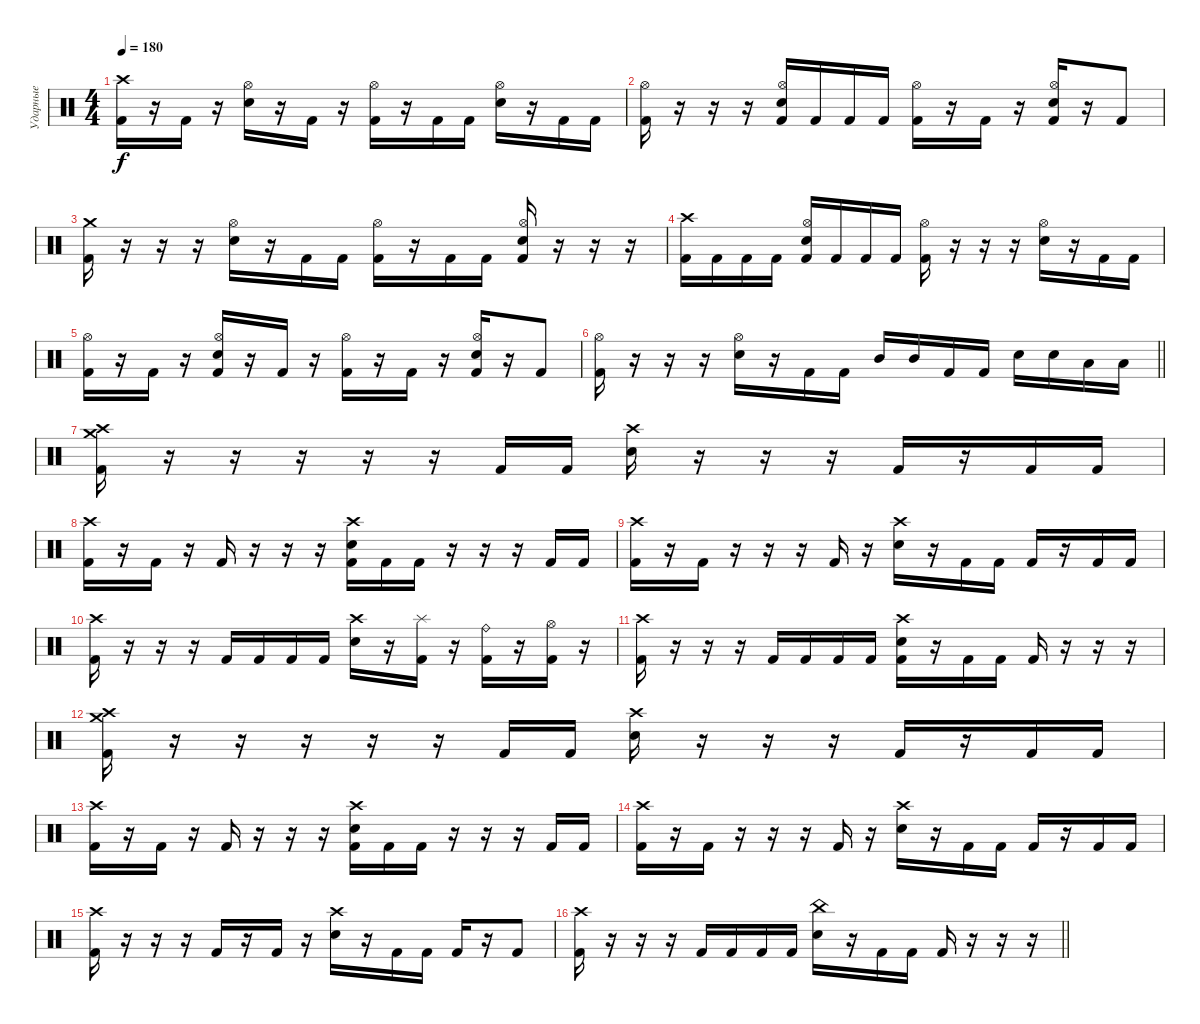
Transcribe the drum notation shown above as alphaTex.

\track ("Ударные" "Ударные") {instrument percussion}
\staff {score}
\articulation defaults
\ts (4 4)
\tempo 180
\clef neutral
\ks c
("Crash high (hit)" "Kick (hit) 2").16{dy f} r.16 "Kick (hit) 2".16 r.16 ("Hi-Hat (open)" "Electric Snare (hit)").16 r.16 "Kick (hit) 2".16 r.16 ("Hi-Hat (open)" "Kick (hit) 2").16 r.16 "Kick (hit) 2".16 "Kick (hit) 2".16 ("Hi-Hat (open)" "Electric Snare (hit)").16 r.16 "Kick (hit) 2".16 "Kick (hit) 2".16 |
("Hi-Hat (open)" "Kick (hit) 2").16 r.16 r.16 r.16 ("Hi-Hat (open)" "Electric Snare (hit)" "Kick (hit) 2").16 "Kick (hit) 2".16 "Kick (hit) 2".16 "Kick (hit) 2".16 ("Hi-Hat (open)" "Kick (hit) 2").16 r.16 "Kick (hit) 2".16 r.16 ("Hi-Hat (open)" "Electric Snare (hit)" "Kick (hit) 2").16 r.16 "Kick (hit) 2".8 |
("Crash medium (hit)" "Kick (hit) 2").16 r.16 r.16 r.16 ("Hi-Hat (open)" "Electric Snare (hit)").16 r.16 "Kick (hit) 2".16 "Kick (hit) 2".16 ("Hi-Hat (open)" "Kick (hit) 2").16 r.16 "Kick (hit) 2".16 "Kick (hit) 2".16 ("Hi-Hat (open)" "Electric Snare (hit)" "Kick (hit) 2").16 r.16 r.16 r.16 |
("Crash high (hit)" "Kick (hit) 2").16 "Kick (hit) 2".16 "Kick (hit) 2".16 "Kick (hit) 2".16 ("Hi-Hat (open)" "Electric Snare (hit)" "Kick (hit) 2").16 "Kick (hit) 2".16 "Kick (hit) 2".16 "Kick (hit) 2".16 ("Hi-Hat (open)" "Kick (hit) 2").16 r.16 r.16 r.16 ("Hi-Hat (open)" "Electric Snare (hit)").16 r.16 "Kick (hit) 2".16 "Kick (hit) 2".16 |
("Hi-Hat (open)" "Kick (hit) 2").16 r.16 "Kick (hit) 2".16 r.16 ("Hi-Hat (open)" "Electric Snare (hit)" "Kick (hit) 2").16 r.16 "Kick (hit) 2".16 r.16 ("Hi-Hat (open)" "Kick (hit) 2").16 r.16 "Kick (hit) 2".16 r.16 ("Hi-Hat (open)" "Electric Snare (hit)" "Kick (hit) 2").16 r.16 "Kick (hit) 2".8 |
\barLineRight lightlight
("Hi-Hat (open)" "Kick (hit) 2").16 r.16 r.16 r.16 ("Hi-Hat (open)" "Electric Snare (hit)").16 r.16 "Kick (hit) 2".16 "Kick (hit) 2".16 "Mid Tom (hit)".16 "Mid Tom (hit)".16 "Kick (hit) 2".16 "Kick (hit) 2".16 "Electric Snare (hit)".16 "Electric Snare (hit)".16 "Low Tom (hit)".16 "Low Tom (hit)".16 |
("Crash medium (hit)" "Crash high (hit)" "Kick (hit) 2").16 r.16 r.16 r.16 r.16 r.16 "Kick (hit) 2".16 "Kick (hit) 2".16 ("Crash high (hit)" "Electric Snare (hit)").16 r.16 r.16 r.16 "Kick (hit) 2".16 r.16 "Kick (hit) 2".16 "Kick (hit) 2".16 |
("Crash high (hit)" "Kick (hit) 2").16 r.16 "Kick (hit) 2".16 r.16 "Kick (hit) 2".16 r.16 r.16 r.16 ("Crash high (hit)" "Electric Snare (hit)" "Kick (hit) 2").16 "Kick (hit) 2".16 "Kick (hit) 2".16 r.16 r.16 r.16 "Kick (hit) 2".16 "Kick (hit) 2".16 |
("Crash high (hit)" "Kick (hit) 2").16 r.16 "Kick (hit) 2".16 r.16 r.16 r.16 "Kick (hit) 2".16 r.16 ("Crash high (hit)" "Electric Snare (hit)").16 r.16 "Kick (hit) 2".16 "Kick (hit) 2".16 "Kick (hit) 2".16 r.16 "Kick (hit) 2".16 "Kick (hit) 2".16 |
("Crash high (hit)" "Kick (hit) 2").16 r.16 r.16 r.16 "Kick (hit) 2".16 "Kick (hit) 2".16 "Kick (hit) 2".16 "Kick (hit) 2".16 ("Crash high (hit)" "Electric Snare (hit)").16 r.16 ("Splash (hit)" "Kick (hit) 2").16 r.16 ("Ride (bell)" "Kick (hit) 2").16 r.16 ("Hi-Hat (open)" "Kick (hit) 2").16 r.16 |
("Crash high (hit)" "Kick (hit) 2").16 r.16 r.16 r.16 "Kick (hit) 2".16 "Kick (hit) 2".16 "Kick (hit) 2".16 "Kick (hit) 2".16 ("Crash high (hit)" "Electric Snare (hit)" "Kick (hit) 2").16 r.16 "Kick (hit) 2".16 "Kick (hit) 2".16 "Kick (hit) 2".16 r.16 r.16 r.16 |
("Crash high (hit)" "Crash medium (hit)" "Kick (hit) 2").16 r.16 r.16 r.16 r.16 r.16 "Kick (hit) 2".16 "Kick (hit) 2".16 ("Crash high (hit)" "Electric Snare (hit)").16 r.16 r.16 r.16 "Kick (hit) 2".16 r.16 "Kick (hit) 2".16 "Kick (hit) 2".16 |
("Crash high (hit)" "Kick (hit) 2").16 r.16 "Kick (hit) 2".16 r.16 "Kick (hit) 2".16 r.16 r.16 r.16 ("Crash high (hit)" "Electric Snare (hit)" "Kick (hit) 2").16 "Kick (hit) 2".16 "Kick (hit) 2".16 r.16 r.16 r.16 "Kick (hit) 2".16 "Kick (hit) 2".16 |
("Crash high (hit)" "Kick (hit) 2").16 r.16 "Kick (hit) 2".16 r.16 r.16 r.16 "Kick (hit) 2".16 r.16 ("Crash high (hit)" "Electric Snare (hit)").16 r.16 "Kick (hit) 2".16 "Kick (hit) 2".16 "Kick (hit) 2".16 r.16 "Kick (hit) 2".16 "Kick (hit) 2".16 |
("Crash high (hit)" "Kick (hit) 2").16 r.16 r.16 r.16 "Kick (hit) 2".16 r.16 "Kick (hit) 2".16 r.16 ("Crash high (hit)" "Electric Snare (hit)").16 r.16 "Kick (hit) 2".16 "Kick (hit) 2".16 "Kick (hit) 2".16 r.16 "Kick (hit) 2".8 |
\barLineRight lightlight
("Crash high (hit)" "Kick (hit) 2").16 r.16 r.16 r.16 "Kick (hit) 2".16 "Kick (hit) 2".16 "Kick (hit) 2".16 "Kick (hit) 2".16 ("China (hit)" "Electric Snare (hit)").16 r.16 "Kick (hit) 2".16 "Kick (hit) 2".16 "Kick (hit) 2".16 r.16 r.16 r.16
